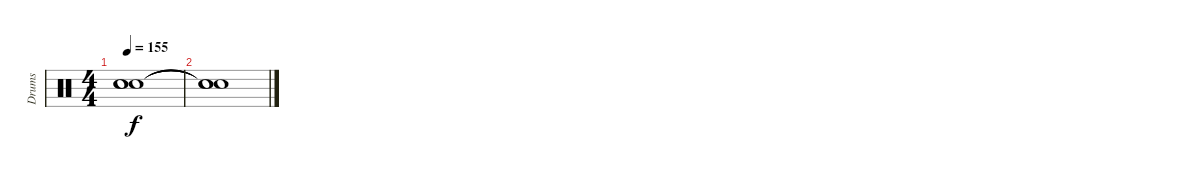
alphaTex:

\track ("Drums" "Drums") {instrument percussion}
\staff {score}
\articulation defaults
\ts (4 4)
\tempo 155
\clef neutral
\ks c
("Snare (hit)"{t} "Snare (hit)"{t} "Snare (hit)"{t}).1{dy f} |
("Snare (hit)"{t} "Snare (hit)"{t} "Snare (hit)"{t}).1
